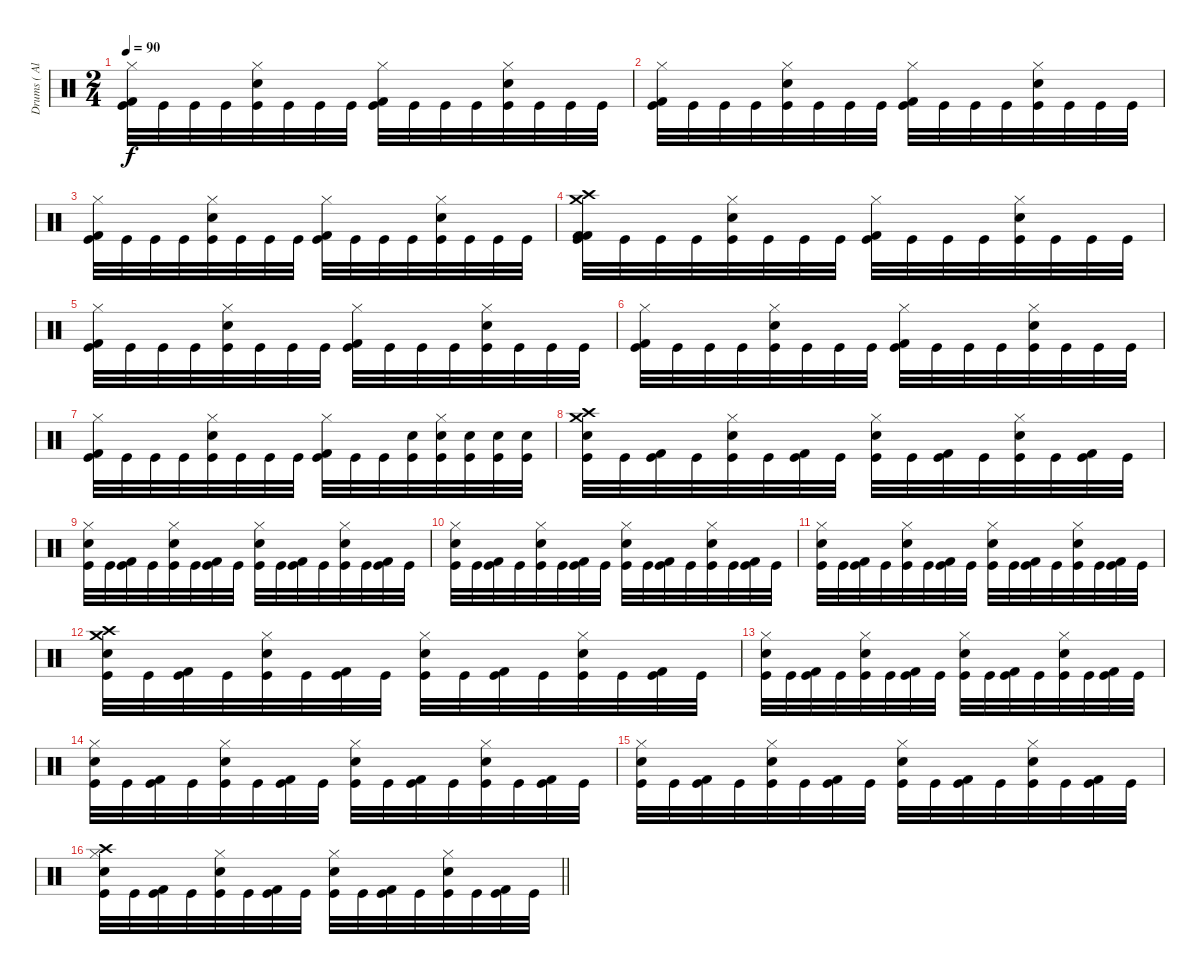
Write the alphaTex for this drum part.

\track ("Drums ( Alex Holzwarth)" "Drums ( Al") {instrument percussion}
\staff {score}
\articulation defaults
\ts (2 4)
\tempo 90
\clef neutral
\ks c
("Hi-Hat (closed)" "Kick (hit) 2" "Kick (hit)").32{dy f} "Kick (hit)".32 "Kick (hit)".32 "Kick (hit)".32 ("Hi-Hat (closed)" "Snare (hit) 2" "Kick (hit)").32 "Kick (hit)".32 "Kick (hit)".32 "Kick (hit)".32 ("Hi-Hat (closed)" "Kick (hit) 2" "Kick (hit)").32 "Kick (hit)".32 "Kick (hit)".32 "Kick (hit)".32 ("Hi-Hat (closed)" "Snare (hit) 2" "Kick (hit)").32 "Kick (hit)".32 "Kick (hit)".32 "Kick (hit)".32 |
("Hi-Hat (closed)" "Kick (hit) 2" "Kick (hit)").32 "Kick (hit)".32 "Kick (hit)".32 "Kick (hit)".32 ("Hi-Hat (closed)" "Snare (hit) 2" "Kick (hit)").32 "Kick (hit)".32 "Kick (hit)".32 "Kick (hit)".32 ("Hi-Hat (closed)" "Kick (hit) 2" "Kick (hit)").32 "Kick (hit)".32 "Kick (hit)".32 "Kick (hit)".32 ("Hi-Hat (closed)" "Snare (hit) 2" "Kick (hit)").32 "Kick (hit)".32 "Kick (hit)".32 "Kick (hit)".32 |
("Hi-Hat (closed)" "Kick (hit) 2" "Kick (hit)").32 "Kick (hit)".32 "Kick (hit)".32 "Kick (hit)".32 ("Hi-Hat (closed)" "Snare (hit) 2" "Kick (hit)").32 "Kick (hit)".32 "Kick (hit)".32 "Kick (hit)".32 ("Hi-Hat (closed)" "Kick (hit) 2" "Kick (hit)").32 "Kick (hit)".32 "Kick (hit)".32 "Kick (hit)".32 ("Hi-Hat (closed)" "Snare (hit) 2" "Kick (hit)").32 "Kick (hit)".32 "Kick (hit)".32 "Kick (hit)".32 |
("Crash high (hit)" "Crash medium (hit)" "Kick (hit) 2" "Kick (hit) 2" "Kick (hit)").32 "Kick (hit)".32 "Kick (hit)".32 "Kick (hit)".32 ("Hi-Hat (closed)" "Snare (hit) 2" "Kick (hit)").32 "Kick (hit)".32 "Kick (hit)".32 "Kick (hit)".32 ("Hi-Hat (closed)" "Kick (hit) 2" "Kick (hit)").32 "Kick (hit)".32 "Kick (hit)".32 "Kick (hit)".32 ("Hi-Hat (closed)" "Snare (hit) 2" "Kick (hit)").32 "Kick (hit)".32 "Kick (hit)".32 "Kick (hit)".32 |
("Hi-Hat (closed)" "Kick (hit) 2" "Kick (hit)").32 "Kick (hit)".32 "Kick (hit)".32 "Kick (hit)".32 ("Hi-Hat (closed)" "Snare (hit) 2" "Kick (hit)").32 "Kick (hit)".32 "Kick (hit)".32 "Kick (hit)".32 ("Hi-Hat (closed)" "Kick (hit) 2" "Kick (hit)").32 "Kick (hit)".32 "Kick (hit)".32 "Kick (hit)".32 ("Hi-Hat (closed)" "Snare (hit) 2" "Kick (hit)").32 "Kick (hit)".32 "Kick (hit)".32 "Kick (hit)".32 |
("Hi-Hat (closed)" "Kick (hit) 2" "Kick (hit)").32 "Kick (hit)".32 "Kick (hit)".32 "Kick (hit)".32 ("Hi-Hat (closed)" "Snare (hit) 2" "Kick (hit)").32 "Kick (hit)".32 "Kick (hit)".32 "Kick (hit)".32 ("Hi-Hat (closed)" "Kick (hit) 2" "Kick (hit)").32 "Kick (hit)".32 "Kick (hit)".32 "Kick (hit)".32 ("Hi-Hat (closed)" "Snare (hit) 2" "Kick (hit)").32 "Kick (hit)".32 "Kick (hit)".32 "Kick (hit)".32 |
("Hi-Hat (closed)" "Kick (hit) 2" "Kick (hit)").32 "Kick (hit)".32 "Kick (hit)".32 "Kick (hit)".32 ("Hi-Hat (closed)" "Snare (hit) 2" "Kick (hit)").32 "Kick (hit)".32 "Kick (hit)".32 "Kick (hit)".32 ("Hi-Hat (closed)" "Kick (hit) 2" "Kick (hit)").32 "Kick (hit)".32 "Kick (hit)".32 ("Electric Snare (hit)" "Kick (hit)").32 ("Hi-Hat (closed)" "Electric Snare (hit)" "Kick (hit)").32 ("Electric Snare (hit)" "Kick (hit)").32 ("Electric Snare (hit)" "Kick (hit)").32 ("Electric Snare (hit)" "Kick (hit)").32 |
("Crash high (hit)" "Crash medium (hit)" "Electric Snare (hit)" "Kick (hit)").32 "Kick (hit)".32 ("Kick (hit) 2" "Kick (hit)").32 "Kick (hit)".32 ("Hi-Hat (closed)" "Electric Snare (hit)" "Kick (hit)").32 "Kick (hit)".32 ("Kick (hit) 2" "Kick (hit)").32 "Kick (hit)".32 ("Hi-Hat (closed)" "Electric Snare (hit)" "Kick (hit)").32 "Kick (hit)".32 ("Kick (hit) 2" "Kick (hit)").32 "Kick (hit)".32 ("Hi-Hat (closed)" "Electric Snare (hit)" "Kick (hit)").32 "Kick (hit)".32 ("Kick (hit) 2" "Kick (hit)").32 "Kick (hit)".32 |
("Hi-Hat (closed)" "Electric Snare (hit)" "Kick (hit)").32 "Kick (hit)".32 ("Kick (hit) 2" "Kick (hit)").32 "Kick (hit)".32 ("Hi-Hat (closed)" "Electric Snare (hit)" "Kick (hit)").32 "Kick (hit)".32 ("Kick (hit) 2" "Kick (hit)").32 "Kick (hit)".32 ("Hi-Hat (closed)" "Electric Snare (hit)" "Kick (hit)").32 "Kick (hit)".32 ("Kick (hit) 2" "Kick (hit)").32 "Kick (hit)".32 ("Hi-Hat (closed)" "Electric Snare (hit)" "Kick (hit)").32 "Kick (hit)".32 ("Kick (hit) 2" "Kick (hit)").32 "Kick (hit)".32 |
("Hi-Hat (closed)" "Electric Snare (hit)" "Kick (hit)").32 "Kick (hit)".32 ("Kick (hit) 2" "Kick (hit)").32 "Kick (hit)".32 ("Hi-Hat (closed)" "Electric Snare (hit)" "Kick (hit)").32 "Kick (hit)".32 ("Kick (hit) 2" "Kick (hit)").32 "Kick (hit)".32 ("Hi-Hat (closed)" "Electric Snare (hit)" "Kick (hit)").32 "Kick (hit)".32 ("Kick (hit) 2" "Kick (hit)").32 "Kick (hit)".32 ("Hi-Hat (closed)" "Electric Snare (hit)" "Kick (hit)").32 "Kick (hit)".32 ("Kick (hit) 2" "Kick (hit)").32 "Kick (hit)".32 |
("Hi-Hat (closed)" "Electric Snare (hit)" "Kick (hit)").32 "Kick (hit)".32 ("Kick (hit) 2" "Kick (hit)").32 "Kick (hit)".32 ("Hi-Hat (closed)" "Electric Snare (hit)" "Kick (hit)").32 "Kick (hit)".32 ("Kick (hit) 2" "Kick (hit)").32 "Kick (hit)".32 ("Hi-Hat (closed)" "Electric Snare (hit)" "Kick (hit)").32 "Kick (hit)".32 ("Kick (hit) 2" "Kick (hit)").32 "Kick (hit)".32 ("Hi-Hat (closed)" "Electric Snare (hit)" "Kick (hit)").32 "Kick (hit)".32 ("Kick (hit) 2" "Kick (hit)").32 "Kick (hit)".32 |
("Crash high (hit)" "Crash medium (hit)" "Electric Snare (hit)" "Kick (hit)").32 "Kick (hit)".32 ("Kick (hit) 2" "Kick (hit)").32 "Kick (hit)".32 ("Hi-Hat (closed)" "Electric Snare (hit)" "Kick (hit)").32 "Kick (hit)".32 ("Kick (hit) 2" "Kick (hit)").32 "Kick (hit)".32 ("Hi-Hat (closed)" "Electric Snare (hit)" "Kick (hit)").32 "Kick (hit)".32 ("Kick (hit) 2" "Kick (hit)").32 "Kick (hit)".32 ("Hi-Hat (closed)" "Electric Snare (hit)" "Kick (hit)").32 "Kick (hit)".32 ("Kick (hit) 2" "Kick (hit)").32 "Kick (hit)".32 |
("Hi-Hat (closed)" "Electric Snare (hit)" "Kick (hit)").32 "Kick (hit)".32 ("Kick (hit) 2" "Kick (hit)").32 "Kick (hit)".32 ("Hi-Hat (closed)" "Electric Snare (hit)" "Kick (hit)").32 "Kick (hit)".32 ("Kick (hit) 2" "Kick (hit)").32 "Kick (hit)".32 ("Hi-Hat (closed)" "Electric Snare (hit)" "Kick (hit)").32 "Kick (hit)".32 ("Kick (hit) 2" "Kick (hit)").32 "Kick (hit)".32 ("Hi-Hat (closed)" "Electric Snare (hit)" "Kick (hit)").32 "Kick (hit)".32 ("Kick (hit) 2" "Kick (hit)").32 "Kick (hit)".32 |
("Hi-Hat (closed)" "Electric Snare (hit)" "Kick (hit)").32 "Kick (hit)".32 ("Kick (hit) 2" "Kick (hit)").32 "Kick (hit)".32 ("Hi-Hat (closed)" "Electric Snare (hit)" "Kick (hit)").32 "Kick (hit)".32 ("Kick (hit) 2" "Kick (hit)").32 "Kick (hit)".32 ("Hi-Hat (closed)" "Electric Snare (hit)" "Kick (hit)").32 "Kick (hit)".32 ("Kick (hit) 2" "Kick (hit)").32 "Kick (hit)".32 ("Hi-Hat (closed)" "Electric Snare (hit)" "Kick (hit)").32 "Kick (hit)".32 ("Kick (hit) 2" "Kick (hit)").32 "Kick (hit)".32 |
("Hi-Hat (closed)" "Electric Snare (hit)" "Kick (hit)").32 "Kick (hit)".32 ("Kick (hit) 2" "Kick (hit)").32 "Kick (hit)".32 ("Hi-Hat (closed)" "Electric Snare (hit)" "Kick (hit)").32 "Kick (hit)".32 ("Kick (hit) 2" "Kick (hit)").32 "Kick (hit)".32 ("Hi-Hat (closed)" "Electric Snare (hit)" "Kick (hit)").32 "Kick (hit)".32 ("Kick (hit) 2" "Kick (hit)").32 "Kick (hit)".32 ("Hi-Hat (closed)" "Electric Snare (hit)" "Kick (hit)").32 "Kick (hit)".32 ("Kick (hit) 2" "Kick (hit)").32 "Kick (hit)".32 |
\barLineRight lightlight
("Crash high (hit)" "Hi-Hat (closed)" "Electric Snare (hit)" "Kick (hit)").32 "Kick (hit)".32 ("Kick (hit) 2" "Kick (hit)").32 "Kick (hit)".32 ("Hi-Hat (closed)" "Electric Snare (hit)" "Kick (hit)").32 "Kick (hit)".32 ("Kick (hit) 2" "Kick (hit)").32 "Kick (hit)".32 ("Hi-Hat (closed)" "Electric Snare (hit)" "Kick (hit)").32 "Kick (hit)".32 ("Kick (hit) 2" "Kick (hit)").32 "Kick (hit)".32 ("Hi-Hat (closed)" "Electric Snare (hit)" "Kick (hit)").32 "Kick (hit)".32 ("Kick (hit) 2" "Kick (hit)").32 "Kick (hit)".32
